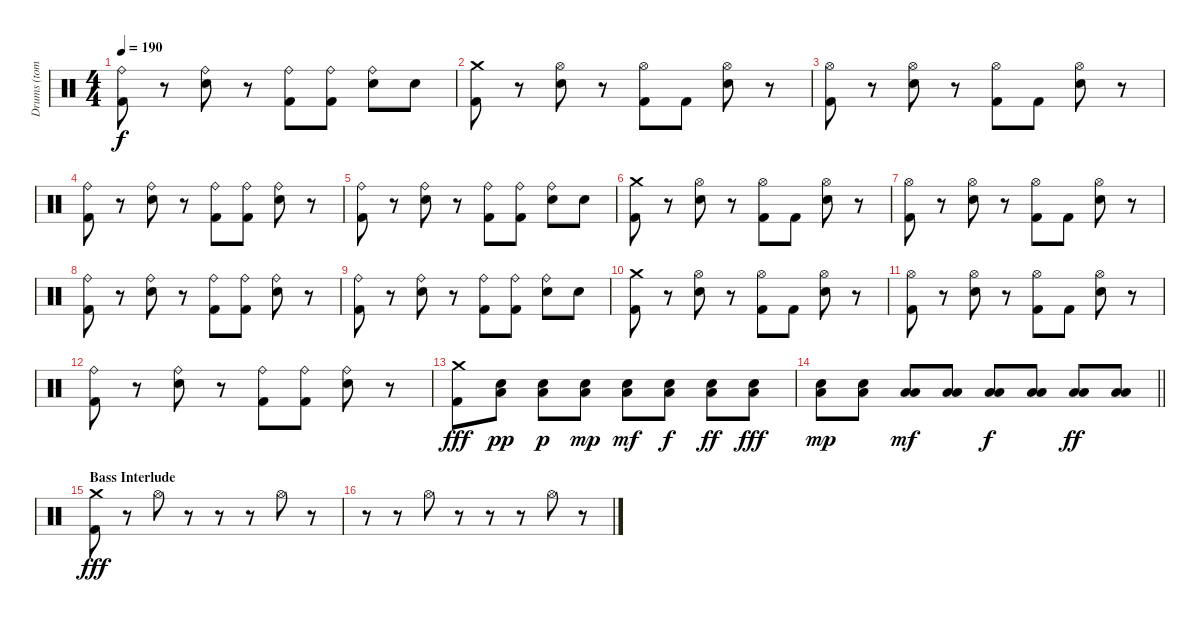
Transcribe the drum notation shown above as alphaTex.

\track ("Drums (tom)" "Drums (tom") {instrument percussion}
\staff {score}
\articulation defaults
\ts (4 4)
\tempo 190
\clef neutral
\ks c
("Ride (bell)" "Kick (hit) 2").8{dy f} r.8 ("Ride (bell)" "Electric Snare (hit)").8 r.8 ("Ride (bell)" "Kick (hit) 2").8 ("Ride (bell)" "Kick (hit) 2").8 ("Ride (bell)" "Electric Snare (hit)").8 "Electric Snare (hit)".8 |
("Crash medium (hit)" "Kick (hit) 2").8 r.8 ("Hi-Hat (open)" "Electric Snare (hit)").8 r.8 ("Hi-Hat (open)" "Kick (hit) 2").8 "Kick (hit) 2".8 ("Hi-Hat (open)" "Electric Snare (hit)").8 r.8 |
("Hi-Hat (open)" "Kick (hit) 2").8 r.8 ("Hi-Hat (open)" "Electric Snare (hit)").8 r.8 ("Hi-Hat (open)" "Kick (hit) 2").8 "Kick (hit) 2".8 ("Hi-Hat (open)" "Electric Snare (hit)").8 r.8 |
("Ride (bell)" "Kick (hit) 2").8 r.8 ("Ride (bell)" "Electric Snare (hit)").8 r.8 ("Ride (bell)" "Kick (hit) 2").8 ("Ride (bell)" "Kick (hit) 2").8 ("Ride (bell)" "Electric Snare (hit)").8 r.8 |
("Ride (bell)" "Kick (hit) 2").8 r.8 ("Ride (bell)" "Electric Snare (hit)").8 r.8 ("Ride (bell)" "Kick (hit) 2").8 ("Ride (bell)" "Kick (hit) 2").8 ("Ride (bell)" "Electric Snare (hit)").8 "Electric Snare (hit)".8 |
("Crash medium (hit)" "Kick (hit) 2").8 r.8 ("Hi-Hat (open)" "Electric Snare (hit)").8 r.8 ("Hi-Hat (open)" "Kick (hit) 2").8 "Kick (hit) 2".8 ("Hi-Hat (open)" "Electric Snare (hit)").8 r.8 |
("Hi-Hat (open)" "Kick (hit) 2").8 r.8 ("Hi-Hat (open)" "Electric Snare (hit)").8 r.8 ("Hi-Hat (open)" "Kick (hit) 2").8 "Kick (hit) 2".8 ("Hi-Hat (open)" "Electric Snare (hit)").8 r.8 |
("Ride (bell)" "Kick (hit) 2").8 r.8 ("Ride (bell)" "Electric Snare (hit)").8 r.8 ("Ride (bell)" "Kick (hit) 2").8 ("Ride (bell)" "Kick (hit) 2").8 ("Ride (bell)" "Electric Snare (hit)").8 r.8 |
("Ride (bell)" "Kick (hit) 2").8 r.8 ("Ride (bell)" "Electric Snare (hit)").8 r.8 ("Ride (bell)" "Kick (hit) 2").8 ("Ride (bell)" "Kick (hit) 2").8 ("Ride (bell)" "Electric Snare (hit)").8 "Electric Snare (hit)".8 |
("Crash medium (hit)" "Kick (hit) 2").8 r.8 ("Hi-Hat (open)" "Electric Snare (hit)").8 r.8 ("Hi-Hat (open)" "Kick (hit) 2").8 "Kick (hit) 2".8 ("Hi-Hat (open)" "Electric Snare (hit)").8 r.8 |
("Hi-Hat (open)" "Kick (hit) 2").8 r.8 ("Hi-Hat (open)" "Electric Snare (hit)").8 r.8 ("Hi-Hat (open)" "Kick (hit) 2").8 "Kick (hit) 2".8 ("Hi-Hat (open)" "Electric Snare (hit)").8 r.8 |
("Ride (bell)" "Kick (hit) 2").8 r.8 ("Ride (bell)" "Electric Snare (hit)").8 r.8 ("Ride (bell)" "Kick (hit) 2").8 ("Ride (bell)" "Kick (hit) 2").8 ("Ride (bell)" "Electric Snare (hit)").8 r.8 |
("Crash medium (hit)" "Kick (hit) 2").8{dy fff} ("Electric Snare (hit)" "Low Floor Tom (hit)").8{dy pp} ("Electric Snare (hit)" "Low Floor Tom (hit)").8{dy p} ("Electric Snare (hit)" "Low Floor Tom (hit)").8{dy mp} ("Electric Snare (hit)" "Low Floor Tom (hit)").8{dy mf} ("Electric Snare (hit)" "Low Floor Tom (hit)").8{dy f} ("Electric Snare (hit)" "Low Floor Tom (hit)").8{dy ff} ("Electric Snare (hit)" "Low Floor Tom (hit)").8{dy fff} |
\barLineRight lightlight
("Electric Snare (hit)" "Low Floor Tom (hit)").8{dy mp} ("Electric Snare (hit)" "Low Floor Tom (hit)").8 ("Low Tom (hit)" "Low Floor Tom (hit)").8{dy mf} ("Low Tom (hit)" "Low Floor Tom (hit)").8 ("Low Tom (hit)" "Low Floor Tom (hit)").8{dy f} ("Low Tom (hit)" "Low Floor Tom (hit)").8 ("Low Tom (hit)" "Low Floor Tom (hit)").8{dy ff} ("Low Tom (hit)" "Low Floor Tom (hit)").8 |
\section ("" "Bass Interlude")
("Crash medium (hit)" "Kick (hit) 2").8{dy fff} r.8 "Hi-Hat (open)".8 r.8 r.8 r.8 "Hi-Hat (open)".8 r.8 |
r.8 r.8 "Hi-Hat (open)".8 r.8 r.8 r.8 "Hi-Hat (open)".8 r.8
